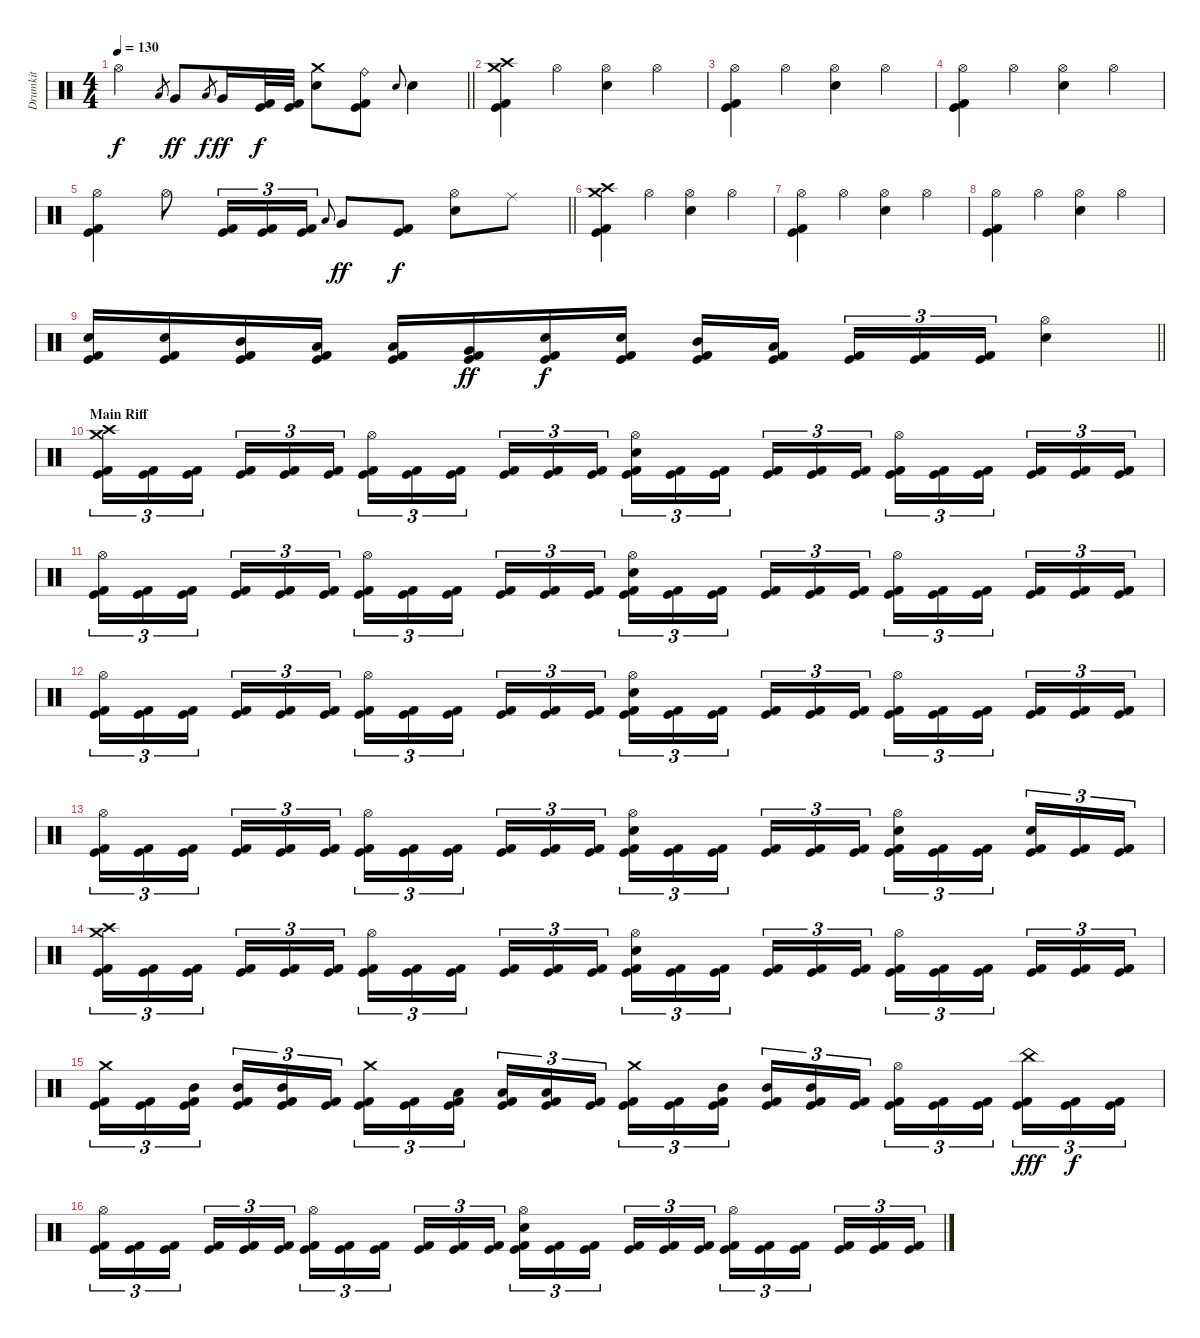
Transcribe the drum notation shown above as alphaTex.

\track ("Drumkit" "Drumkit") {instrument percussion}
\staff {score}
\articulation defaults
\ts (4 4)
\tempo 130
\clef neutral
\barLineRight lightlight
\ks c "Hi-Hat (open)".4{dy f} "Low Tom (hit)".8{gr} "Very Low Tom (hit)".8{dy ff} "Low Tom (hit)".8{gr dy f} "Very Low Tom (hit)".16{dy ff}
("Kick (hit)" "Kick (hit) 2").32{dy f} ("Kick (hit)" "Kick (hit) 2").32 ("Crash medium (hit)" "Electric Snare (hit)").8 ("Ride (bell)" "Kick (hit)" "Kick (hit) 2").8 "Electric Snare (hit)".8{gr onbeat} "Electric Snare (hit)".4 |
("Crash high (hit)" "Crash medium (hit)" "Kick (hit)" "Kick (hit) 2").4 "Hi-Hat (open)".4 ("Hi-Hat (open)" "Electric Snare (hit)").4 "Hi-Hat (open)".4 |
("Hi-Hat (open)" "Kick (hit)" "Kick (hit) 2").4 "Hi-Hat (open)".4 ("Hi-Hat (open)" "Electric Snare (hit)").4 "Hi-Hat (open)".4 |
("Hi-Hat (open)" "Kick (hit)" "Kick (hit) 2").4 "Hi-Hat (open)".4 ("Hi-Hat (open)" "Electric Snare (hit)").4 "Hi-Hat (open)".4 |
\barLineRight lightlight
("Hi-Hat (open)" "Kick (hit)" "Kick (hit) 2").4 "Hi-Hat (open)".8 ("Kick (hit)" "Kick (hit) 2").16{tu (3 2)} ("Kick (hit)" "Kick (hit) 2").16{tu (3 2)} ("Kick (hit)" "Kick (hit) 2").16{tu (3 2)} "Low Tom (hit)".8{gr onbeat} "Very Low Tom (hit)".8{dy ff} ("Kick (hit)" "Kick (hit) 2").8{dy f} ("Hi-Hat (open)" "Electric Snare (hit)").8 "Ride (middle)".8 |
("Crash high (hit)" "Crash medium (hit)" "Kick (hit)" "Kick (hit) 2").4 "Hi-Hat (open)".4 ("Hi-Hat (open)" "Electric Snare (hit)").4 "Hi-Hat (open)".4 |
("Hi-Hat (open)" "Kick (hit)" "Kick (hit) 2").4 "Hi-Hat (open)".4 ("Hi-Hat (open)" "Electric Snare (hit)").4 "Hi-Hat (open)".4 |
("Hi-Hat (open)" "Kick (hit)" "Kick (hit) 2").4 "Hi-Hat (open)".4 ("Hi-Hat (open)" "Electric Snare (hit)").4 "Hi-Hat (open)".4 |
\barLineRight lightlight
("Electric Snare (hit)" "Kick (hit)" "Kick (hit) 2").16 ("Electric Snare (hit)" "Kick (hit)" "Kick (hit) 2").16 ("Mid Tom (hit)" "Kick (hit)" "Kick (hit) 2").16 ("Low Tom (hit)" "Kick (hit)" "Kick (hit) 2").16 ("Low Tom (hit)" "Kick (hit)" "Kick (hit) 2").16 ("Very Low Tom (hit)" "Kick (hit)" "Kick (hit) 2").16{dy ff} ("Electric Snare (hit)" "Kick (hit)" "Kick (hit) 2").16{dy f} ("Electric Snare (hit)" "Kick (hit)" "Kick (hit) 2").16 ("Mid Tom (hit)" "Kick (hit)" "Kick (hit) 2").16 ("Low Tom (hit)" "Kick (hit)" "Kick (hit) 2").16{beam splitsecondary} ("Kick (hit)" "Kick (hit) 2").16{tu (3 2)} ("Kick (hit)" "Kick (hit) 2").16{tu (3 2)} ("Kick (hit)" "Kick (hit) 2").16{tu (3 2)} ("Hi-Hat (open)" "Electric Snare (hit)").4 |
\section ("" "Main Riff")
("Crash high (hit)" "Crash medium (hit)" "Kick (hit)" "Kick (hit) 2").16{tu (3 2)} ("Kick (hit)" "Kick (hit) 2").16{tu (3 2)} ("Kick (hit)" "Kick (hit) 2").16{tu (3 2) beam splitsecondary} ("Kick (hit)" "Kick (hit) 2").16{tu (3 2)} ("Kick (hit)" "Kick (hit) 2").16{tu (3 2)} ("Kick (hit)" "Kick (hit) 2").16{tu (3 2)} ("Hi-Hat (open)" "Kick (hit)" "Kick (hit) 2").16{tu (3 2)} ("Kick (hit)" "Kick (hit) 2").16{tu (3 2)} ("Kick (hit)" "Kick (hit) 2").16{tu (3 2) beam splitsecondary} ("Kick (hit)" "Kick (hit) 2").16{tu (3 2)} ("Kick (hit)" "Kick (hit) 2").16{tu (3 2)} ("Kick (hit)" "Kick (hit) 2").16{tu (3 2)} ("Hi-Hat (open)" "Electric Snare (hit)" "Kick (hit)" "Kick (hit) 2").16{tu (3 2)} ("Kick (hit)" "Kick (hit) 2").16{tu (3 2)} ("Kick (hit)" "Kick (hit) 2").16{tu (3 2) beam splitsecondary} ("Kick (hit)" "Kick (hit) 2").16{tu (3 2)} ("Kick (hit)" "Kick (hit) 2").16{tu (3 2)} ("Kick (hit)" "Kick (hit) 2").16{tu (3 2)} ("Hi-Hat (open)" "Kick (hit)" "Kick (hit) 2").16{tu (3 2)} ("Kick (hit)" "Kick (hit) 2").16{tu (3 2)} ("Kick (hit)" "Kick (hit) 2").16{tu (3 2) beam splitsecondary} ("Kick (hit)" "Kick (hit) 2").16{tu (3 2)} ("Kick (hit)" "Kick (hit) 2").16{tu (3 2)} ("Kick (hit)" "Kick (hit) 2").16{tu (3 2)} |
("Hi-Hat (open)" "Kick (hit)" "Kick (hit) 2").16{tu (3 2)} ("Kick (hit)" "Kick (hit) 2").16{tu (3 2)} ("Kick (hit)" "Kick (hit) 2").16{tu (3 2) beam splitsecondary} ("Kick (hit)" "Kick (hit) 2").16{tu (3 2)} ("Kick (hit)" "Kick (hit) 2").16{tu (3 2)} ("Kick (hit)" "Kick (hit) 2").16{tu (3 2)} ("Hi-Hat (open)" "Kick (hit)" "Kick (hit) 2").16{tu (3 2)} ("Kick (hit)" "Kick (hit) 2").16{tu (3 2)} ("Kick (hit)" "Kick (hit) 2").16{tu (3 2) beam splitsecondary} ("Kick (hit)" "Kick (hit) 2").16{tu (3 2)} ("Kick (hit)" "Kick (hit) 2").16{tu (3 2)} ("Kick (hit)" "Kick (hit) 2").16{tu (3 2)} ("Hi-Hat (open)" "Electric Snare (hit)" "Kick (hit)" "Kick (hit) 2").16{tu (3 2)} ("Kick (hit)" "Kick (hit) 2").16{tu (3 2)} ("Kick (hit)" "Kick (hit) 2").16{tu (3 2) beam splitsecondary} ("Kick (hit)" "Kick (hit) 2").16{tu (3 2)} ("Kick (hit)" "Kick (hit) 2").16{tu (3 2)} ("Kick (hit)" "Kick (hit) 2").16{tu (3 2)} ("Hi-Hat (open)" "Kick (hit)" "Kick (hit) 2").16{tu (3 2)} ("Kick (hit)" "Kick (hit) 2").16{tu (3 2)} ("Kick (hit)" "Kick (hit) 2").16{tu (3 2) beam splitsecondary} ("Kick (hit)" "Kick (hit) 2").16{tu (3 2)} ("Kick (hit)" "Kick (hit) 2").16{tu (3 2)} ("Kick (hit)" "Kick (hit) 2").16{tu (3 2)} |
("Hi-Hat (open)" "Kick (hit)" "Kick (hit) 2").16{tu (3 2)} ("Kick (hit)" "Kick (hit) 2").16{tu (3 2)} ("Kick (hit)" "Kick (hit) 2").16{tu (3 2) beam splitsecondary} ("Kick (hit)" "Kick (hit) 2").16{tu (3 2)} ("Kick (hit)" "Kick (hit) 2").16{tu (3 2)} ("Kick (hit)" "Kick (hit) 2").16{tu (3 2)} ("Hi-Hat (open)" "Kick (hit)" "Kick (hit) 2").16{tu (3 2)} ("Kick (hit)" "Kick (hit) 2").16{tu (3 2)} ("Kick (hit)" "Kick (hit) 2").16{tu (3 2) beam splitsecondary} ("Kick (hit)" "Kick (hit) 2").16{tu (3 2)} ("Kick (hit)" "Kick (hit) 2").16{tu (3 2)} ("Kick (hit)" "Kick (hit) 2").16{tu (3 2)} ("Hi-Hat (open)" "Electric Snare (hit)" "Kick (hit)" "Kick (hit) 2").16{tu (3 2)} ("Kick (hit)" "Kick (hit) 2").16{tu (3 2)} ("Kick (hit)" "Kick (hit) 2").16{tu (3 2) beam splitsecondary} ("Kick (hit)" "Kick (hit) 2").16{tu (3 2)} ("Kick (hit)" "Kick (hit) 2").16{tu (3 2)} ("Kick (hit)" "Kick (hit) 2").16{tu (3 2)} ("Hi-Hat (open)" "Kick (hit)" "Kick (hit) 2").16{tu (3 2)} ("Kick (hit)" "Kick (hit) 2").16{tu (3 2)} ("Kick (hit)" "Kick (hit) 2").16{tu (3 2) beam splitsecondary} ("Kick (hit)" "Kick (hit) 2").16{tu (3 2)} ("Kick (hit)" "Kick (hit) 2").16{tu (3 2)} ("Kick (hit)" "Kick (hit) 2").16{tu (3 2)} |
("Hi-Hat (open)" "Kick (hit)" "Kick (hit) 2").16{tu (3 2)} ("Kick (hit)" "Kick (hit) 2").16{tu (3 2)} ("Kick (hit)" "Kick (hit) 2").16{tu (3 2) beam splitsecondary} ("Kick (hit)" "Kick (hit) 2").16{tu (3 2)} ("Kick (hit)" "Kick (hit) 2").16{tu (3 2)} ("Kick (hit)" "Kick (hit) 2").16{tu (3 2)} ("Hi-Hat (open)" "Kick (hit)" "Kick (hit) 2").16{tu (3 2)} ("Kick (hit)" "Kick (hit) 2").16{tu (3 2)} ("Kick (hit)" "Kick (hit) 2").16{tu (3 2) beam splitsecondary} ("Kick (hit)" "Kick (hit) 2").16{tu (3 2)} ("Kick (hit)" "Kick (hit) 2").16{tu (3 2)} ("Kick (hit)" "Kick (hit) 2").16{tu (3 2)} ("Hi-Hat (open)" "Electric Snare (hit)" "Kick (hit)" "Kick (hit) 2").16{tu (3 2)} ("Kick (hit)" "Kick (hit) 2").16{tu (3 2)} ("Kick (hit)" "Kick (hit) 2").16{tu (3 2) beam splitsecondary} ("Kick (hit)" "Kick (hit) 2").16{tu (3 2)} ("Kick (hit)" "Kick (hit) 2").16{tu (3 2)} ("Kick (hit)" "Kick (hit) 2").16{tu (3 2)} ("Hi-Hat (open)" "Electric Snare (hit)" "Kick (hit)" "Kick (hit) 2").16{tu (3 2)} ("Kick (hit)" "Kick (hit) 2").16{tu (3 2)} ("Kick (hit)" "Kick (hit) 2").16{tu (3 2) beam splitsecondary} ("Electric Snare (hit)" "Kick (hit)" "Kick (hit) 2").16{tu (3 2)} ("Kick (hit)" "Kick (hit) 2").16{tu (3 2)} ("Kick (hit)" "Kick (hit) 2").16{tu (3 2)} |
("Crash high (hit)" "Crash medium (hit)" "Kick (hit)" "Kick (hit) 2").16{tu (3 2)} ("Kick (hit)" "Kick (hit) 2").16{tu (3 2)} ("Kick (hit)" "Kick (hit) 2").16{tu (3 2) beam splitsecondary} ("Kick (hit)" "Kick (hit) 2").16{tu (3 2)} ("Kick (hit)" "Kick (hit) 2").16{tu (3 2)} ("Kick (hit)" "Kick (hit) 2").16{tu (3 2)} ("Hi-Hat (open)" "Kick (hit)" "Kick (hit) 2").16{tu (3 2)} ("Kick (hit)" "Kick (hit) 2").16{tu (3 2)} ("Kick (hit)" "Kick (hit) 2").16{tu (3 2) beam splitsecondary} ("Kick (hit)" "Kick (hit) 2").16{tu (3 2)} ("Kick (hit)" "Kick (hit) 2").16{tu (3 2)} ("Kick (hit)" "Kick (hit) 2").16{tu (3 2)} ("Hi-Hat (open)" "Electric Snare (hit)" "Kick (hit)" "Kick (hit) 2").16{tu (3 2)} ("Kick (hit)" "Kick (hit) 2").16{tu (3 2)} ("Kick (hit)" "Kick (hit) 2").16{tu (3 2) beam splitsecondary} ("Kick (hit)" "Kick (hit) 2").16{tu (3 2)} ("Kick (hit)" "Kick (hit) 2").16{tu (3 2)} ("Kick (hit)" "Kick (hit) 2").16{tu (3 2)} ("Hi-Hat (open)" "Kick (hit)" "Kick (hit) 2").16{tu (3 2)} ("Kick (hit)" "Kick (hit) 2").16{tu (3 2)} ("Kick (hit)" "Kick (hit) 2").16{tu (3 2) beam splitsecondary} ("Kick (hit)" "Kick (hit) 2").16{tu (3 2)} ("Kick (hit)" "Kick (hit) 2").16{tu (3 2)} ("Kick (hit)" "Kick (hit) 2").16{tu (3 2)} |
("Crash medium (hit)" "Kick (hit)" "Kick (hit) 2").16{tu (3 2)} ("Kick (hit)" "Kick (hit) 2").16{tu (3 2)} ("Mid Tom (hit)" "Kick (hit)" "Kick (hit) 2").16{tu (3 2) beam splitsecondary} ("Mid Tom (hit)" "Kick (hit)" "Kick (hit) 2").16{tu (3 2)} ("Mid Tom (hit)" "Kick (hit)" "Kick (hit) 2").16{tu (3 2)} ("Kick (hit)" "Kick (hit) 2").16{tu (3 2)} ("Crash medium (hit)" "Kick (hit)" "Kick (hit) 2").16{tu (3 2)} ("Kick (hit)" "Kick (hit) 2").16{tu (3 2)} ("Low Tom (hit)" "Kick (hit)" "Kick (hit) 2").16{tu (3 2) beam splitsecondary} ("Low Tom (hit)" "Kick (hit)" "Kick (hit) 2").16{tu (3 2)} ("Low Tom (hit)" "Kick (hit)" "Kick (hit) 2").16{tu (3 2)} ("Kick (hit)" "Kick (hit) 2").16{tu (3 2)} ("Crash medium (hit)" "Kick (hit)" "Kick (hit) 2").16{tu (3 2)} ("Kick (hit)" "Kick (hit) 2").16{tu (3 2)} ("Mid Tom (hit)" "Kick (hit)" "Kick (hit) 2").16{tu (3 2) beam splitsecondary} ("Mid Tom (hit)" "Kick (hit)" "Kick (hit) 2").16{tu (3 2)} ("Mid Tom (hit)" "Kick (hit)" "Kick (hit) 2").16{tu (3 2)} ("Kick (hit)" "Kick (hit) 2").16{tu (3 2)} ("Hi-Hat (open)" "Kick (hit)" "Kick (hit) 2").16{tu (3 2)} ("Kick (hit)" "Kick (hit) 2").16{tu (3 2)} ("Kick (hit)" "Kick (hit) 2").16{tu (3 2) beam splitsecondary} ("China (hit)" "Kick (hit)" "Kick (hit) 2").16{tu (3 2) dy fff} ("Kick (hit)" "Kick (hit) 2").16{tu (3 2) dy f} ("Kick (hit)" "Kick (hit) 2").16{tu (3 2)} |
("Hi-Hat (open)" "Kick (hit)" "Kick (hit) 2").16{tu (3 2)} ("Kick (hit)" "Kick (hit) 2").16{tu (3 2)} ("Kick (hit)" "Kick (hit) 2").16{tu (3 2) beam splitsecondary} ("Kick (hit)" "Kick (hit) 2").16{tu (3 2)} ("Kick (hit)" "Kick (hit) 2").16{tu (3 2)} ("Kick (hit)" "Kick (hit) 2").16{tu (3 2)} ("Hi-Hat (open)" "Kick (hit)" "Kick (hit) 2").16{tu (3 2)} ("Kick (hit)" "Kick (hit) 2").16{tu (3 2)} ("Kick (hit)" "Kick (hit) 2").16{tu (3 2) beam splitsecondary} ("Kick (hit)" "Kick (hit) 2").16{tu (3 2)} ("Kick (hit)" "Kick (hit) 2").16{tu (3 2)} ("Kick (hit)" "Kick (hit) 2").16{tu (3 2)} ("Hi-Hat (open)" "Electric Snare (hit)" "Kick (hit)" "Kick (hit) 2").16{tu (3 2)} ("Kick (hit)" "Kick (hit) 2").16{tu (3 2)} ("Kick (hit)" "Kick (hit) 2").16{tu (3 2) beam splitsecondary} ("Kick (hit)" "Kick (hit) 2").16{tu (3 2)} ("Kick (hit)" "Kick (hit) 2").16{tu (3 2)} ("Kick (hit)" "Kick (hit) 2").16{tu (3 2)} ("Hi-Hat (open)" "Kick (hit)" "Kick (hit) 2").16{tu (3 2)} ("Kick (hit)" "Kick (hit) 2").16{tu (3 2)} ("Kick (hit)" "Kick (hit) 2").16{tu (3 2) beam splitsecondary} ("Kick (hit)" "Kick (hit) 2").16{tu (3 2)} ("Kick (hit)" "Kick (hit) 2").16{tu (3 2)} ("Kick (hit)" "Kick (hit) 2").16{tu (3 2)}
